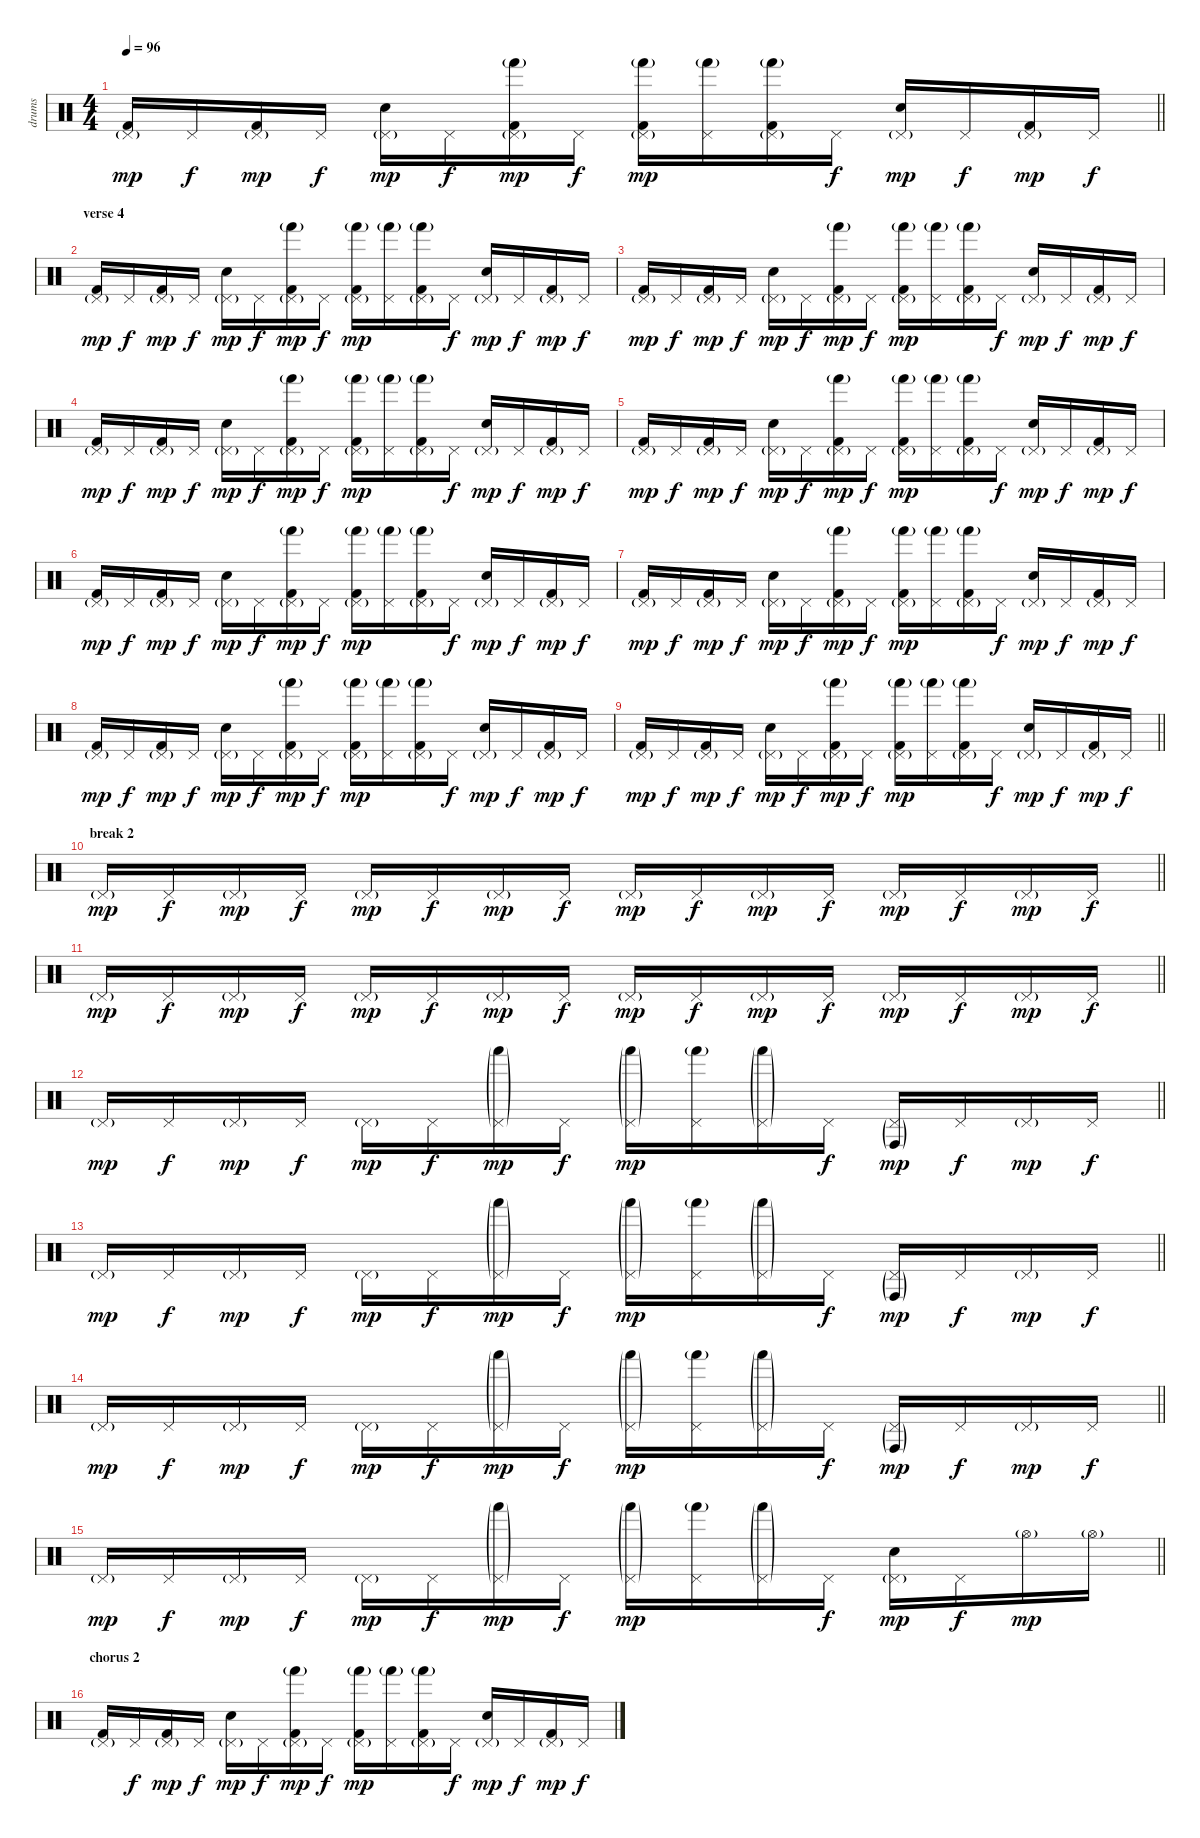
\track ("drums" "drums") {instrument percussion}
\staff {score}
\articulation defaults
\ts (4 4)
\tempo 96
\clef neutral
\barLineRight lightlight
\ks c
("Kick (hit) 2" "Pedal Hi-Hat (hit)"{g}).16{dy mp} "Pedal Hi-Hat (hit)".16{dy f} ("Kick (hit) 2" "Pedal Hi-Hat (hit)"{g}).16{dy mp} "Pedal Hi-Hat (hit)".16{dy f} ("Snare (hit) 2" "Pedal Hi-Hat (hit)"{g}).16{dy mp} "Pedal Hi-Hat (hit)".16{dy f} ("Kick (hit) 2" "Hand (hit)"{g} "Pedal Hi-Hat (hit)"{g}).16{dy mp} "Pedal Hi-Hat (hit)".16{dy f} ("Kick (hit) 2" "Hand (hit)"{g} "Pedal Hi-Hat (hit)"{g}).16{dy mp} ("Hand (hit)"{g} "Pedal Hi-Hat (hit)").16 ("Kick (hit) 2" "Hand (hit)"{g} "Pedal Hi-Hat (hit)"{g}).16 "Pedal Hi-Hat (hit)".16{dy f} ("Snare (hit) 2" "Pedal Hi-Hat (hit)"{g}).16{dy mp} "Pedal Hi-Hat (hit)".16{dy f} ("Kick (hit) 2" "Pedal Hi-Hat (hit)"{g}).16{dy mp} "Pedal Hi-Hat (hit)".16{dy f} |
\section ("" "verse 4")
("Kick (hit) 2" "Pedal Hi-Hat (hit)"{g}).16{dy mp} "Pedal Hi-Hat (hit)".16{dy f} ("Kick (hit) 2" "Pedal Hi-Hat (hit)"{g}).16{dy mp} "Pedal Hi-Hat (hit)".16{dy f} ("Snare (hit) 2" "Pedal Hi-Hat (hit)"{g}).16{dy mp} "Pedal Hi-Hat (hit)".16{dy f} ("Kick (hit) 2" "Hand (hit)"{g} "Pedal Hi-Hat (hit)"{g}).16{dy mp} "Pedal Hi-Hat (hit)".16{dy f} ("Kick (hit) 2" "Hand (hit)"{g} "Pedal Hi-Hat (hit)"{g}).16{dy mp} ("Hand (hit)"{g} "Pedal Hi-Hat (hit)").16 ("Kick (hit) 2" "Hand (hit)"{g} "Pedal Hi-Hat (hit)"{g}).16 "Pedal Hi-Hat (hit)".16{dy f} ("Snare (hit) 2" "Pedal Hi-Hat (hit)"{g}).16{dy mp} "Pedal Hi-Hat (hit)".16{dy f} ("Kick (hit) 2" "Pedal Hi-Hat (hit)"{g}).16{dy mp} "Pedal Hi-Hat (hit)".16{dy f} |
("Kick (hit) 2" "Pedal Hi-Hat (hit)"{g}).16{dy mp} "Pedal Hi-Hat (hit)".16{dy f} ("Kick (hit) 2" "Pedal Hi-Hat (hit)"{g}).16{dy mp} "Pedal Hi-Hat (hit)".16{dy f} ("Snare (hit) 2" "Pedal Hi-Hat (hit)"{g}).16{dy mp} "Pedal Hi-Hat (hit)".16{dy f} ("Kick (hit) 2" "Hand (hit)"{g} "Pedal Hi-Hat (hit)"{g}).16{dy mp} "Pedal Hi-Hat (hit)".16{dy f} ("Kick (hit) 2" "Hand (hit)"{g} "Pedal Hi-Hat (hit)"{g}).16{dy mp} ("Hand (hit)"{g} "Pedal Hi-Hat (hit)").16 ("Kick (hit) 2" "Hand (hit)"{g} "Pedal Hi-Hat (hit)"{g}).16 "Pedal Hi-Hat (hit)".16{dy f} ("Snare (hit) 2" "Pedal Hi-Hat (hit)"{g}).16{dy mp} "Pedal Hi-Hat (hit)".16{dy f} ("Kick (hit) 2" "Pedal Hi-Hat (hit)"{g}).16{dy mp} "Pedal Hi-Hat (hit)".16{dy f} |
("Kick (hit) 2" "Pedal Hi-Hat (hit)"{g}).16{dy mp} "Pedal Hi-Hat (hit)".16{dy f} ("Kick (hit) 2" "Pedal Hi-Hat (hit)"{g}).16{dy mp} "Pedal Hi-Hat (hit)".16{dy f} ("Snare (hit) 2" "Pedal Hi-Hat (hit)"{g}).16{dy mp} "Pedal Hi-Hat (hit)".16{dy f} ("Kick (hit) 2" "Hand (hit)"{g} "Pedal Hi-Hat (hit)"{g}).16{dy mp} "Pedal Hi-Hat (hit)".16{dy f} ("Kick (hit) 2" "Hand (hit)"{g} "Pedal Hi-Hat (hit)"{g}).16{dy mp} ("Hand (hit)"{g} "Pedal Hi-Hat (hit)").16 ("Kick (hit) 2" "Hand (hit)"{g} "Pedal Hi-Hat (hit)"{g}).16 "Pedal Hi-Hat (hit)".16{dy f} ("Snare (hit) 2" "Pedal Hi-Hat (hit)"{g}).16{dy mp} "Pedal Hi-Hat (hit)".16{dy f} ("Kick (hit) 2" "Pedal Hi-Hat (hit)"{g}).16{dy mp} "Pedal Hi-Hat (hit)".16{dy f} |
("Kick (hit) 2" "Pedal Hi-Hat (hit)"{g}).16{dy mp} "Pedal Hi-Hat (hit)".16{dy f} ("Kick (hit) 2" "Pedal Hi-Hat (hit)"{g}).16{dy mp} "Pedal Hi-Hat (hit)".16{dy f} ("Snare (hit) 2" "Pedal Hi-Hat (hit)"{g}).16{dy mp} "Pedal Hi-Hat (hit)".16{dy f} ("Kick (hit) 2" "Hand (hit)"{g} "Pedal Hi-Hat (hit)"{g}).16{dy mp} "Pedal Hi-Hat (hit)".16{dy f} ("Kick (hit) 2" "Hand (hit)"{g} "Pedal Hi-Hat (hit)"{g}).16{dy mp} ("Hand (hit)"{g} "Pedal Hi-Hat (hit)").16 ("Kick (hit) 2" "Hand (hit)"{g} "Pedal Hi-Hat (hit)"{g}).16 "Pedal Hi-Hat (hit)".16{dy f} ("Snare (hit) 2" "Pedal Hi-Hat (hit)"{g}).16{dy mp} "Pedal Hi-Hat (hit)".16{dy f} ("Kick (hit) 2" "Pedal Hi-Hat (hit)"{g}).16{dy mp} "Pedal Hi-Hat (hit)".16{dy f} |
("Kick (hit) 2" "Pedal Hi-Hat (hit)"{g}).16{dy mp} "Pedal Hi-Hat (hit)".16{dy f} ("Kick (hit) 2" "Pedal Hi-Hat (hit)"{g}).16{dy mp} "Pedal Hi-Hat (hit)".16{dy f} ("Snare (hit) 2" "Pedal Hi-Hat (hit)"{g}).16{dy mp} "Pedal Hi-Hat (hit)".16{dy f} ("Kick (hit) 2" "Hand (hit)"{g} "Pedal Hi-Hat (hit)"{g}).16{dy mp} "Pedal Hi-Hat (hit)".16{dy f} ("Kick (hit) 2" "Hand (hit)"{g} "Pedal Hi-Hat (hit)"{g}).16{dy mp} ("Hand (hit)"{g} "Pedal Hi-Hat (hit)").16 ("Kick (hit) 2" "Hand (hit)"{g} "Pedal Hi-Hat (hit)"{g}).16 "Pedal Hi-Hat (hit)".16{dy f} ("Snare (hit) 2" "Pedal Hi-Hat (hit)"{g}).16{dy mp} "Pedal Hi-Hat (hit)".16{dy f} ("Kick (hit) 2" "Pedal Hi-Hat (hit)"{g}).16{dy mp} "Pedal Hi-Hat (hit)".16{dy f} |
("Kick (hit) 2" "Pedal Hi-Hat (hit)"{g}).16{dy mp} "Pedal Hi-Hat (hit)".16{dy f} ("Kick (hit) 2" "Pedal Hi-Hat (hit)"{g}).16{dy mp} "Pedal Hi-Hat (hit)".16{dy f} ("Snare (hit) 2" "Pedal Hi-Hat (hit)"{g}).16{dy mp} "Pedal Hi-Hat (hit)".16{dy f} ("Kick (hit) 2" "Hand (hit)"{g} "Pedal Hi-Hat (hit)"{g}).16{dy mp} "Pedal Hi-Hat (hit)".16{dy f} ("Kick (hit) 2" "Hand (hit)"{g} "Pedal Hi-Hat (hit)"{g}).16{dy mp} ("Hand (hit)"{g} "Pedal Hi-Hat (hit)").16 ("Kick (hit) 2" "Hand (hit)"{g} "Pedal Hi-Hat (hit)"{g}).16 "Pedal Hi-Hat (hit)".16{dy f} ("Snare (hit) 2" "Pedal Hi-Hat (hit)"{g}).16{dy mp} "Pedal Hi-Hat (hit)".16{dy f} ("Kick (hit) 2" "Pedal Hi-Hat (hit)"{g}).16{dy mp} "Pedal Hi-Hat (hit)".16{dy f} |
("Kick (hit) 2" "Pedal Hi-Hat (hit)"{g}).16{dy mp} "Pedal Hi-Hat (hit)".16{dy f} ("Kick (hit) 2" "Pedal Hi-Hat (hit)"{g}).16{dy mp} "Pedal Hi-Hat (hit)".16{dy f} ("Snare (hit) 2" "Pedal Hi-Hat (hit)"{g}).16{dy mp} "Pedal Hi-Hat (hit)".16{dy f} ("Kick (hit) 2" "Hand (hit)"{g} "Pedal Hi-Hat (hit)"{g}).16{dy mp} "Pedal Hi-Hat (hit)".16{dy f} ("Kick (hit) 2" "Hand (hit)"{g} "Pedal Hi-Hat (hit)"{g}).16{dy mp} ("Hand (hit)"{g} "Pedal Hi-Hat (hit)").16 ("Kick (hit) 2" "Hand (hit)"{g} "Pedal Hi-Hat (hit)"{g}).16 "Pedal Hi-Hat (hit)".16{dy f} ("Snare (hit) 2" "Pedal Hi-Hat (hit)"{g}).16{dy mp} "Pedal Hi-Hat (hit)".16{dy f} ("Kick (hit) 2" "Pedal Hi-Hat (hit)"{g}).16{dy mp} "Pedal Hi-Hat (hit)".16{dy f} |
\barLineRight lightlight
("Kick (hit) 2" "Pedal Hi-Hat (hit)"{g}).16{dy mp} "Pedal Hi-Hat (hit)".16{dy f} ("Kick (hit) 2" "Pedal Hi-Hat (hit)"{g}).16{dy mp} "Pedal Hi-Hat (hit)".16{dy f} ("Snare (hit) 2" "Pedal Hi-Hat (hit)"{g}).16{dy mp} "Pedal Hi-Hat (hit)".16{dy f} ("Kick (hit) 2" "Hand (hit)"{g} "Pedal Hi-Hat (hit)"{g}).16{dy mp} "Pedal Hi-Hat (hit)".16{dy f} ("Kick (hit) 2" "Hand (hit)"{g} "Pedal Hi-Hat (hit)"{g}).16{dy mp} ("Hand (hit)"{g} "Pedal Hi-Hat (hit)").16 ("Kick (hit) 2" "Hand (hit)"{g} "Pedal Hi-Hat (hit)"{g}).16 "Pedal Hi-Hat (hit)".16{dy f} ("Snare (hit) 2" "Pedal Hi-Hat (hit)"{g}).16{dy mp} "Pedal Hi-Hat (hit)".16{dy f} ("Kick (hit) 2" "Pedal Hi-Hat (hit)"{g}).16{dy mp} "Pedal Hi-Hat (hit)".16{dy f} |
\section ("" "break 2")
\barLineRight lightlight "Pedal Hi-Hat (hit)"{g}.16{dy mp} "Pedal Hi-Hat (hit)".16{dy f} "Pedal Hi-Hat (hit)"{g}.16{dy mp} "Pedal Hi-Hat (hit)".16{dy f} "Pedal Hi-Hat (hit)"{g}.16{dy mp} "Pedal Hi-Hat (hit)".16{dy f} "Pedal Hi-Hat (hit)"{g}.16{dy mp} "Pedal Hi-Hat (hit)".16{dy f} "Pedal Hi-Hat (hit)"{g}.16{dy mp} "Pedal Hi-Hat (hit)".16{dy f} "Pedal Hi-Hat (hit)"{g}.16{dy mp} "Pedal Hi-Hat (hit)".16{dy f} "Pedal Hi-Hat (hit)"{g}.16{dy mp} "Pedal Hi-Hat (hit)".16{dy f} "Pedal Hi-Hat (hit)"{g}.16{dy mp} "Pedal Hi-Hat (hit)".16{dy f}
|
\barLineRight lightlight "Pedal Hi-Hat (hit)"{g}.16{dy mp} "Pedal Hi-Hat (hit)".16{dy f} "Pedal Hi-Hat (hit)"{g}.16{dy mp} "Pedal Hi-Hat (hit)".16{dy f} "Pedal Hi-Hat (hit)"{g}.16{dy mp} "Pedal Hi-Hat (hit)".16{dy f} "Pedal Hi-Hat (hit)"{g}.16{dy mp} "Pedal Hi-Hat (hit)".16{dy f} "Pedal Hi-Hat (hit)"{g}.16{dy mp} "Pedal Hi-Hat (hit)".16{dy f} "Pedal Hi-Hat (hit)"{g}.16{dy mp} "Pedal Hi-Hat (hit)".16{dy f} "Pedal Hi-Hat (hit)"{g}.16{dy mp} "Pedal Hi-Hat (hit)".16{dy f} "Pedal Hi-Hat (hit)"{g}.16{dy mp} "Pedal Hi-Hat (hit)".16{dy f}
|
\barLineRight lightlight "Pedal Hi-Hat (hit)"{g}.16{dy mp} "Pedal Hi-Hat (hit)".16{dy f} "Pedal Hi-Hat (hit)"{g}.16{dy mp} "Pedal Hi-Hat (hit)".16{dy f} "Pedal Hi-Hat (hit)"{g}.16{dy mp} "Pedal Hi-Hat (hit)".16{dy f}
("Hand (hit)"{g} "Pedal Hi-Hat (hit)"{g}).16{dy mp} "Pedal Hi-Hat (hit)".16{dy f} ("Hand (hit)"{g} "Pedal Hi-Hat (hit)"{g}).16{dy mp} ("Hand (hit)"{g} "Pedal Hi-Hat (hit)").16 ("Hand (hit)"{g} "Pedal Hi-Hat (hit)"{g}).16 "Pedal Hi-Hat (hit)".16{dy f} ("Conga high (hit)"{g} "Pedal Hi-Hat (hit)"{g}).16{dy mp} "Pedal Hi-Hat (hit)".16{dy f} "Pedal Hi-Hat (hit)"{g}.16{dy mp} "Pedal Hi-Hat (hit)".16{dy f} |
\barLineRight lightlight "Pedal Hi-Hat (hit)"{g}.16{dy mp} "Pedal Hi-Hat (hit)".16{dy f} "Pedal Hi-Hat (hit)"{g}.16{dy mp} "Pedal Hi-Hat (hit)".16{dy f} "Pedal Hi-Hat (hit)"{g}.16{dy mp} "Pedal Hi-Hat (hit)".16{dy f}
("Hand (hit)"{g} "Pedal Hi-Hat (hit)"{g}).16{dy mp} "Pedal Hi-Hat (hit)".16{dy f} ("Hand (hit)"{g} "Pedal Hi-Hat (hit)"{g}).16{dy mp} ("Hand (hit)"{g} "Pedal Hi-Hat (hit)").16 ("Hand (hit)"{g} "Pedal Hi-Hat (hit)"{g}).16 "Pedal Hi-Hat (hit)".16{dy f} ("Conga high (hit)"{g} "Pedal Hi-Hat (hit)"{g}).16{dy mp} "Pedal Hi-Hat (hit)".16{dy f} "Pedal Hi-Hat (hit)"{g}.16{dy mp} "Pedal Hi-Hat (hit)".16{dy f} |
\barLineRight lightlight "Pedal Hi-Hat (hit)"{g}.16{dy mp} "Pedal Hi-Hat (hit)".16{dy f} "Pedal Hi-Hat (hit)"{g}.16{dy mp} "Pedal Hi-Hat (hit)".16{dy f} "Pedal Hi-Hat (hit)"{g}.16{dy mp} "Pedal Hi-Hat (hit)".16{dy f}
("Hand (hit)"{g} "Pedal Hi-Hat (hit)"{g}).16{dy mp} "Pedal Hi-Hat (hit)".16{dy f} ("Hand (hit)"{g} "Pedal Hi-Hat (hit)"{g}).16{dy mp} ("Hand (hit)"{g} "Pedal Hi-Hat (hit)").16 ("Hand (hit)"{g} "Pedal Hi-Hat (hit)"{g}).16 "Pedal Hi-Hat (hit)".16{dy f} ("Conga high (hit)"{g} "Pedal Hi-Hat (hit)"{g}).16{dy mp} "Pedal Hi-Hat (hit)".16{dy f} "Pedal Hi-Hat (hit)"{g}.16{dy mp} "Pedal Hi-Hat (hit)".16{dy f} |
\barLineRight lightlight "Pedal Hi-Hat (hit)"{g}.16{dy mp} "Pedal Hi-Hat (hit)".16{dy f} "Pedal Hi-Hat (hit)"{g}.16{dy mp} "Pedal Hi-Hat (hit)".16{dy f} "Pedal Hi-Hat (hit)"{g}.16{dy mp} "Pedal Hi-Hat (hit)".16{dy f}
("Hand (hit)"{g} "Pedal Hi-Hat (hit)"{g}).16{dy mp} "Pedal Hi-Hat (hit)".16{dy f} ("Hand (hit)"{g} "Pedal Hi-Hat (hit)"{g}).16{dy mp} ("Hand (hit)"{g} "Pedal Hi-Hat (hit)").16 ("Hand (hit)"{g} "Pedal Hi-Hat (hit)"{g}).16 "Pedal Hi-Hat (hit)".16{dy f} ("Snare (hit) 2" "Pedal Hi-Hat (hit)"{g}).16{dy mp} "Pedal Hi-Hat (hit)".16{dy f} "Hi-Hat (open)"{g}.16{dy mp} "Hi-Hat (open)"{g}.16 |
\section ("" "chorus 2")
("Kick (hit) 2" "Pedal Hi-Hat (hit)"{g}).16 "Pedal Hi-Hat (hit)".16{dy f} ("Kick (hit) 2" "Pedal Hi-Hat (hit)"{g}).16{dy mp} "Pedal Hi-Hat (hit)".16{dy f} ("Snare (hit) 2" "Pedal Hi-Hat (hit)"{g}).16{dy mp} "Pedal Hi-Hat (hit)".16{dy f} ("Kick (hit) 2" "Hand (hit)"{g} "Pedal Hi-Hat (hit)"{g}).16{dy mp} "Pedal Hi-Hat (hit)".16{dy f} ("Kick (hit) 2" "Hand (hit)"{g} "Pedal Hi-Hat (hit)"{g}).16{dy mp} ("Hand (hit)"{g} "Pedal Hi-Hat (hit)").16 ("Kick (hit) 2" "Hand (hit)"{g} "Pedal Hi-Hat (hit)"{g}).16 "Pedal Hi-Hat (hit)".16{dy f} ("Snare (hit) 2" "Pedal Hi-Hat (hit)"{g}).16{dy mp} "Pedal Hi-Hat (hit)".16{dy f} ("Kick (hit) 2" "Pedal Hi-Hat (hit)"{g}).16{dy mp} "Pedal Hi-Hat (hit)".16{dy f}
